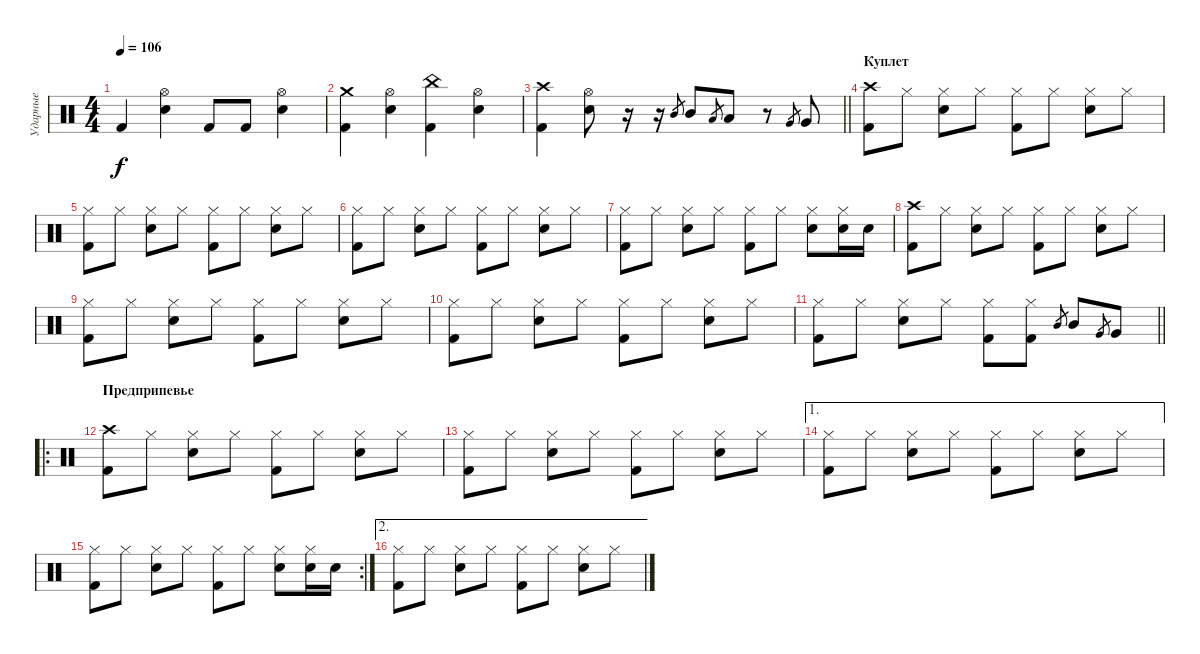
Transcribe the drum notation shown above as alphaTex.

\track ("Ударные" "Ударные") {instrument percussion}
\staff {score}
\articulation defaults
\ts (4 4)
\tempo 106
\clef neutral
\ks c "Kick (hit) 2".4{dy f}
("Electric Snare (hit)" "Hi-Hat (open)").4 "Kick (hit) 2".8 "Kick (hit) 2".8 ("Electric Snare (hit)" "Hi-Hat (open)").4 |
("Crash medium (hit)" "Kick (hit) 2").4 ("Electric Snare (hit)" "Hi-Hat (open)").4 ("Kick (hit) 2" "China (hit)").4 ("Electric Snare (hit)" "Hi-Hat (open)").4 |
\barLineRight lightlight
("Crash high (hit)" "Kick (hit) 2").4 ("Electric Snare (hit)" "Hi-Hat (open)").8 r.16 r.16 "Mid Tom (hit)".8{gr} "Mid Tom (hit)".8 "Low Tom (hit)".8{gr} "Low Tom (hit)".8 r.8 "Very Low Tom (hit)".8{gr} "Very Low Tom (hit)".8 |
\section ("" "Куплет")
("Kick (hit) 2" "Crash high (hit)").8 "Hi-Hat (closed)".8 ("Electric Snare (hit)" "Hi-Hat (closed)").8 "Hi-Hat (closed)".8 ("Kick (hit) 2" "Hi-Hat (closed)").8 "Hi-Hat (closed)".8 ("Electric Snare (hit)" "Hi-Hat (closed)").8 "Hi-Hat (closed)".8 |
("Kick (hit) 2" "Hi-Hat (closed)").8 "Hi-Hat (closed)".8 ("Electric Snare (hit)" "Hi-Hat (closed)").8 "Hi-Hat (closed)".8 ("Kick (hit) 2" "Hi-Hat (closed)").8 "Hi-Hat (closed)".8 ("Electric Snare (hit)" "Hi-Hat (closed)").8 "Hi-Hat (closed)".8 |
("Kick (hit) 2" "Hi-Hat (closed)").8 "Hi-Hat (closed)".8 ("Electric Snare (hit)" "Hi-Hat (closed)").8 "Hi-Hat (closed)".8 ("Kick (hit) 2" "Hi-Hat (closed)").8 "Hi-Hat (closed)".8 ("Electric Snare (hit)" "Hi-Hat (closed)").8 "Hi-Hat (closed)".8 |
("Kick (hit) 2" "Hi-Hat (closed)").8 "Hi-Hat (closed)".8 ("Electric Snare (hit)" "Hi-Hat (closed)").8 "Hi-Hat (closed)".8 ("Kick (hit) 2" "Hi-Hat (closed)").8 "Hi-Hat (closed)".8 ("Hi-Hat (closed)" "Electric Snare (hit)").8 ("Electric Snare (hit)" "Hi-Hat (closed)").16 "Electric Snare (hit)".16 |
("Kick (hit) 2" "Crash high (hit)").8 "Hi-Hat (closed)".8 ("Electric Snare (hit)" "Hi-Hat (closed)").8 "Hi-Hat (closed)".8 ("Kick (hit) 2" "Hi-Hat (closed)").8 "Hi-Hat (closed)".8 ("Electric Snare (hit)" "Hi-Hat (closed)").8 "Hi-Hat (closed)".8 |
("Kick (hit) 2" "Hi-Hat (closed)").8 "Hi-Hat (closed)".8 ("Electric Snare (hit)" "Hi-Hat (closed)").8 "Hi-Hat (closed)".8 ("Kick (hit) 2" "Hi-Hat (closed)").8 "Hi-Hat (closed)".8 ("Electric Snare (hit)" "Hi-Hat (closed)").8 "Hi-Hat (closed)".8 |
("Kick (hit) 2" "Hi-Hat (closed)").8 "Hi-Hat (closed)".8 ("Electric Snare (hit)" "Hi-Hat (closed)").8 "Hi-Hat (closed)".8 ("Kick (hit) 2" "Hi-Hat (closed)").8 "Hi-Hat (closed)".8 ("Electric Snare (hit)" "Hi-Hat (closed)").8 "Hi-Hat (closed)".8 |
\barLineRight lightlight
("Kick (hit) 2" "Hi-Hat (closed)").8 "Hi-Hat (closed)".8 ("Electric Snare (hit)" "Hi-Hat (closed)").8 "Hi-Hat (closed)".8 ("Kick (hit) 2" "Hi-Hat (closed)").8 ("Hi-Hat (closed)" "Kick (hit) 2").8 "Mid Tom (hit)".8{gr} "Mid Tom (hit)".8 "Very Low Tom (hit)".8{gr} "Very Low Tom (hit)".8 |
\ro
\section ("" "Предприпевье")
("Kick (hit) 2" "Crash high (hit)").8 "Hi-Hat (closed)".8 ("Electric Snare (hit)" "Hi-Hat (closed)").8 "Hi-Hat (closed)".8 ("Kick (hit) 2" "Hi-Hat (closed)").8 "Hi-Hat (closed)".8 ("Electric Snare (hit)" "Hi-Hat (closed)").8 "Hi-Hat (closed)".8 |
("Kick (hit) 2" "Hi-Hat (closed)").8 "Hi-Hat (closed)".8 ("Electric Snare (hit)" "Hi-Hat (closed)").8 "Hi-Hat (closed)".8 ("Kick (hit) 2" "Hi-Hat (closed)").8 "Hi-Hat (closed)".8 ("Electric Snare (hit)" "Hi-Hat (closed)").8 "Hi-Hat (closed)".8 |
\ae 1
("Kick (hit) 2" "Hi-Hat (closed)").8 "Hi-Hat (closed)".8 ("Electric Snare (hit)" "Hi-Hat (closed)").8 "Hi-Hat (closed)".8 ("Kick (hit) 2" "Hi-Hat (closed)").8 "Hi-Hat (closed)".8 ("Electric Snare (hit)" "Hi-Hat (closed)").8 "Hi-Hat (closed)".8 |
\rc 2
("Kick (hit) 2" "Hi-Hat (closed)").8 "Hi-Hat (closed)".8 ("Electric Snare (hit)" "Hi-Hat (closed)").8 "Hi-Hat (closed)".8 ("Kick (hit) 2" "Hi-Hat (closed)").8 "Hi-Hat (closed)".8 ("Hi-Hat (closed)" "Electric Snare (hit)").8 ("Electric Snare (hit)" "Hi-Hat (closed)").16 "Electric Snare (hit)".16 |
\ae 2
("Kick (hit) 2" "Hi-Hat (closed)").8 "Hi-Hat (closed)".8 ("Electric Snare (hit)" "Hi-Hat (closed)").8 "Hi-Hat (closed)".8 ("Kick (hit) 2" "Hi-Hat (closed)").8 "Hi-Hat (closed)".8 ("Electric Snare (hit)" "Hi-Hat (closed)").8 "Hi-Hat (closed)".8
